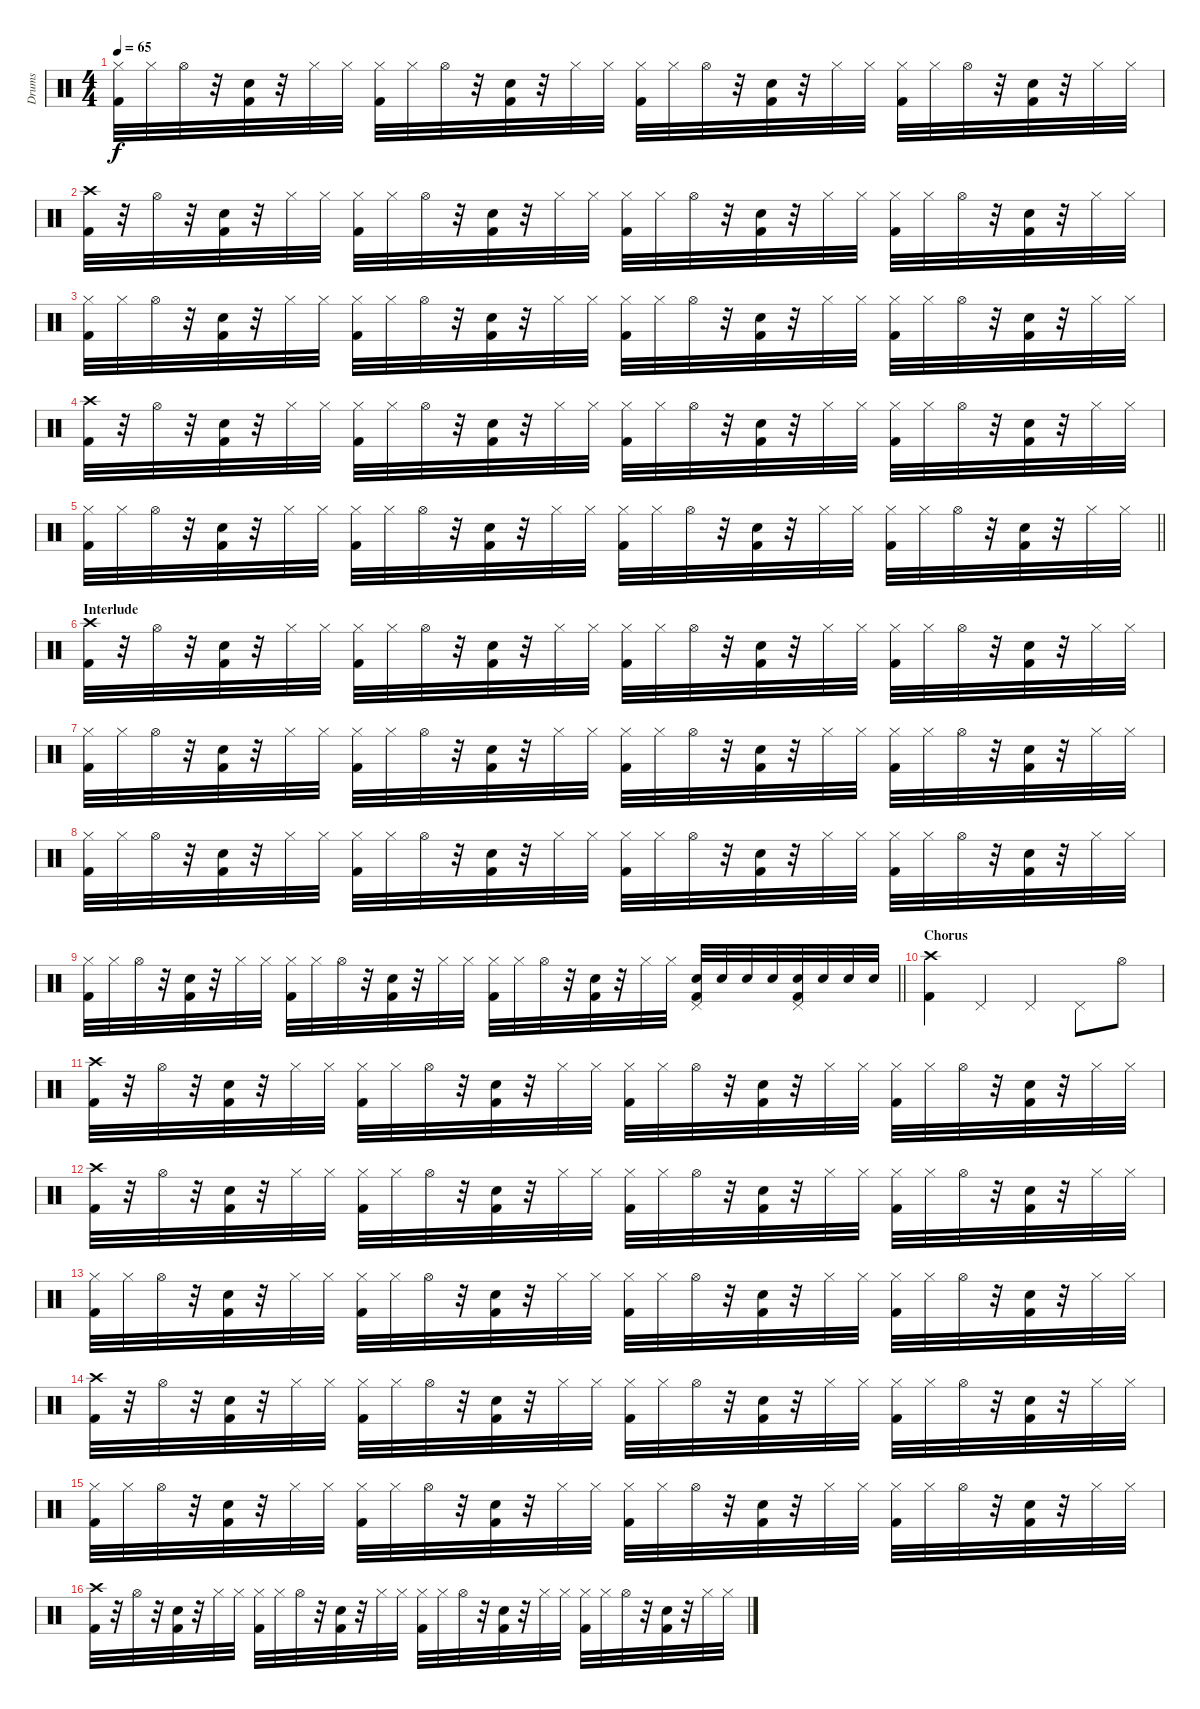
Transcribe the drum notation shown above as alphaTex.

\track ("Drums" "Drums") {instrument percussion}
\staff {score}
\articulation defaults
\ts (4 4)
\tempo 65
\clef neutral
\ks c
("Hi-Hat (closed)" "Kick (hit) 2").32{dy f} "Hi-Hat (closed)".32 "Hi-Hat (open)".32 r.32 ("Snare (hit) 2" "Kick (hit) 2").32 r.32 "Hi-Hat (closed)".32 "Hi-Hat (closed)".32 ("Hi-Hat (closed)" "Kick (hit) 2").32 "Hi-Hat (closed)".32 "Hi-Hat (open)".32 r.32 ("Snare (hit) 2" "Kick (hit) 2").32 r.32 "Hi-Hat (closed)".32 "Hi-Hat (closed)".32 ("Hi-Hat (closed)" "Kick (hit) 2").32 "Hi-Hat (closed)".32 "Hi-Hat (open)".32 r.32 ("Snare (hit) 2" "Kick (hit) 2").32 r.32 "Hi-Hat (closed)".32 "Hi-Hat (closed)".32 ("Hi-Hat (closed)" "Kick (hit) 2").32 "Hi-Hat (closed)".32 "Hi-Hat (open)".32 r.32 ("Snare (hit) 2" "Kick (hit) 2").32 r.32 "Hi-Hat (closed)".32 "Hi-Hat (closed)".32 |
("Crash high (hit)" "Kick (hit) 2").32 r.32 "Hi-Hat (open)".32 r.32 ("Snare (hit) 2" "Kick (hit) 2").32 r.32 "Hi-Hat (closed)".32 "Hi-Hat (closed)".32 ("Hi-Hat (closed)" "Kick (hit) 2").32 "Hi-Hat (closed)".32 "Hi-Hat (open)".32 r.32 ("Snare (hit) 2" "Kick (hit) 2").32 r.32 "Hi-Hat (closed)".32 "Hi-Hat (closed)".32 ("Hi-Hat (closed)" "Kick (hit) 2").32 "Hi-Hat (closed)".32 "Hi-Hat (open)".32 r.32 ("Snare (hit) 2" "Kick (hit) 2").32 r.32 "Hi-Hat (closed)".32 "Hi-Hat (closed)".32 ("Hi-Hat (closed)" "Kick (hit) 2").32 "Hi-Hat (closed)".32 "Hi-Hat (open)".32 r.32 ("Snare (hit) 2" "Kick (hit) 2").32 r.32 "Hi-Hat (closed)".32 "Hi-Hat (closed)".32 |
("Hi-Hat (closed)" "Kick (hit) 2").32 "Hi-Hat (closed)".32 "Hi-Hat (open)".32 r.32 ("Snare (hit) 2" "Kick (hit) 2").32 r.32 "Hi-Hat (closed)".32 "Hi-Hat (closed)".32 ("Hi-Hat (closed)" "Kick (hit) 2").32 "Hi-Hat (closed)".32 "Hi-Hat (open)".32 r.32 ("Snare (hit) 2" "Kick (hit) 2").32 r.32 "Hi-Hat (closed)".32 "Hi-Hat (closed)".32 ("Hi-Hat (closed)" "Kick (hit) 2").32 "Hi-Hat (closed)".32 "Hi-Hat (open)".32 r.32 ("Snare (hit) 2" "Kick (hit) 2").32 r.32 "Hi-Hat (closed)".32 "Hi-Hat (closed)".32 ("Hi-Hat (closed)" "Kick (hit) 2").32 "Hi-Hat (closed)".32 "Hi-Hat (open)".32 r.32 ("Snare (hit) 2" "Kick (hit) 2").32 r.32 "Hi-Hat (closed)".32 "Hi-Hat (closed)".32 |
("Crash high (hit)" "Kick (hit) 2").32 r.32 "Hi-Hat (open)".32 r.32 ("Snare (hit) 2" "Kick (hit) 2").32 r.32 "Hi-Hat (closed)".32 "Hi-Hat (closed)".32 ("Hi-Hat (closed)" "Kick (hit) 2").32 "Hi-Hat (closed)".32 "Hi-Hat (open)".32 r.32 ("Snare (hit) 2" "Kick (hit) 2").32 r.32 "Hi-Hat (closed)".32 "Hi-Hat (closed)".32 ("Hi-Hat (closed)" "Kick (hit) 2").32 "Hi-Hat (closed)".32 "Hi-Hat (open)".32 r.32 ("Snare (hit) 2" "Kick (hit) 2").32 r.32 "Hi-Hat (closed)".32 "Hi-Hat (closed)".32 ("Hi-Hat (closed)" "Kick (hit) 2").32 "Hi-Hat (closed)".32 "Hi-Hat (open)".32 r.32 ("Snare (hit) 2" "Kick (hit) 2").32 r.32 "Hi-Hat (closed)".32 "Hi-Hat (closed)".32 |
\barLineRight lightlight
("Hi-Hat (closed)" "Kick (hit) 2").32 "Hi-Hat (closed)".32 "Hi-Hat (open)".32 r.32 ("Snare (hit) 2" "Kick (hit) 2").32 r.32 "Hi-Hat (closed)".32 "Hi-Hat (closed)".32 ("Hi-Hat (closed)" "Kick (hit) 2").32 "Hi-Hat (closed)".32 "Hi-Hat (open)".32 r.32 ("Snare (hit) 2" "Kick (hit) 2").32 r.32 "Hi-Hat (closed)".32 "Hi-Hat (closed)".32 ("Hi-Hat (closed)" "Kick (hit) 2").32 "Hi-Hat (closed)".32 "Hi-Hat (open)".32 r.32 ("Snare (hit) 2" "Kick (hit) 2").32 r.32 "Hi-Hat (closed)".32 "Hi-Hat (closed)".32 ("Hi-Hat (closed)" "Kick (hit) 2").32 "Hi-Hat (closed)".32 "Hi-Hat (open)".32 r.32 ("Snare (hit) 2" "Kick (hit) 2").32 r.32 "Hi-Hat (closed)".32 "Hi-Hat (closed)".32 |
\section ("" "Interlude")
("Crash high (hit)" "Kick (hit) 2").32 r.32 "Hi-Hat (open)".32 r.32 ("Snare (hit) 2" "Kick (hit) 2").32 r.32 "Hi-Hat (closed)".32 "Hi-Hat (closed)".32 ("Hi-Hat (closed)" "Kick (hit) 2").32 "Hi-Hat (closed)".32 "Hi-Hat (open)".32 r.32 ("Snare (hit) 2" "Kick (hit) 2").32 r.32 "Hi-Hat (closed)".32 "Hi-Hat (closed)".32 ("Hi-Hat (closed)" "Kick (hit) 2").32 "Hi-Hat (closed)".32 "Hi-Hat (open)".32 r.32 ("Snare (hit) 2" "Kick (hit) 2").32 r.32 "Hi-Hat (closed)".32 "Hi-Hat (closed)".32 ("Hi-Hat (closed)" "Kick (hit) 2").32 "Hi-Hat (closed)".32 "Hi-Hat (open)".32 r.32 ("Snare (hit) 2" "Kick (hit) 2").32 r.32 "Hi-Hat (closed)".32 "Hi-Hat (closed)".32 |
("Hi-Hat (closed)" "Kick (hit) 2").32 "Hi-Hat (closed)".32 "Hi-Hat (open)".32 r.32 ("Snare (hit) 2" "Kick (hit) 2").32 r.32 "Hi-Hat (closed)".32 "Hi-Hat (closed)".32 ("Hi-Hat (closed)" "Kick (hit) 2").32 "Hi-Hat (closed)".32 "Hi-Hat (open)".32 r.32 ("Snare (hit) 2" "Kick (hit) 2").32 r.32 "Hi-Hat (closed)".32 "Hi-Hat (closed)".32 ("Hi-Hat (closed)" "Kick (hit) 2").32 "Hi-Hat (closed)".32 "Hi-Hat (open)".32 r.32 ("Snare (hit) 2" "Kick (hit) 2").32 r.32 "Hi-Hat (closed)".32 "Hi-Hat (closed)".32 ("Hi-Hat (closed)" "Kick (hit) 2").32 "Hi-Hat (closed)".32 "Hi-Hat (open)".32 r.32 ("Snare (hit) 2" "Kick (hit) 2").32 r.32 "Hi-Hat (closed)".32 "Hi-Hat (closed)".32 |
("Hi-Hat (closed)" "Kick (hit) 2").32 "Hi-Hat (closed)".32 "Hi-Hat (open)".32 r.32 ("Snare (hit) 2" "Kick (hit) 2").32 r.32 "Hi-Hat (closed)".32 "Hi-Hat (closed)".32 ("Hi-Hat (closed)" "Kick (hit) 2").32 "Hi-Hat (closed)".32 "Hi-Hat (open)".32 r.32 ("Snare (hit) 2" "Kick (hit) 2").32 r.32 "Hi-Hat (closed)".32 "Hi-Hat (closed)".32 ("Hi-Hat (closed)" "Kick (hit) 2").32 "Hi-Hat (closed)".32 "Hi-Hat (open)".32 r.32 ("Snare (hit) 2" "Kick (hit) 2").32 r.32 "Hi-Hat (closed)".32 "Hi-Hat (closed)".32 ("Hi-Hat (closed)" "Kick (hit) 2").32 "Hi-Hat (closed)".32 "Hi-Hat (open)".32 r.32 ("Snare (hit) 2" "Kick (hit) 2").32 r.32 "Hi-Hat (closed)".32 "Hi-Hat (closed)".32 |
\barLineRight lightlight
("Hi-Hat (closed)" "Kick (hit) 2").32 "Hi-Hat (closed)".32 "Hi-Hat (open)".32 r.32 ("Snare (hit) 2" "Kick (hit) 2").32 r.32 "Hi-Hat (closed)".32 "Hi-Hat (closed)".32 ("Hi-Hat (closed)" "Kick (hit) 2").32 "Hi-Hat (closed)".32 "Hi-Hat (open)".32 r.32 ("Snare (hit) 2" "Kick (hit) 2").32 r.32 "Hi-Hat (closed)".32 "Hi-Hat (closed)".32 ("Hi-Hat (closed)" "Kick (hit) 2").32 "Hi-Hat (closed)".32 "Hi-Hat (open)".32 r.32 ("Snare (hit) 2" "Kick (hit) 2").32 r.32 "Hi-Hat (closed)".32 "Hi-Hat (closed)".32 ("Pedal Hi-Hat (hit)" "Snare (hit) 2" "Kick (hit) 2").32 "Snare (hit) 2".32 "Snare (hit) 2".32 "Snare (hit) 2".32 ("Pedal Hi-Hat (hit)" "Snare (hit) 2" "Kick (hit) 2").32 "Snare (hit) 2".32 "Snare (hit) 2".32 "Snare (hit) 2".32 |
\section ("" "Chorus")
("Crash high (hit)" "Kick (hit) 2").4 "Pedal Hi-Hat (hit)".4 "Pedal Hi-Hat (hit)".4 "Pedal Hi-Hat (hit)".8 "Hi-Hat (open)".8 |
("Crash high (hit)" "Kick (hit) 2").32 r.32 "Hi-Hat (open)".32 r.32 ("Snare (hit) 2" "Kick (hit) 2").32 r.32 "Hi-Hat (closed)".32 "Hi-Hat (closed)".32 ("Hi-Hat (closed)" "Kick (hit) 2").32 "Hi-Hat (closed)".32 "Hi-Hat (open)".32 r.32 ("Snare (hit) 2" "Kick (hit) 2").32 r.32 "Hi-Hat (closed)".32 "Hi-Hat (closed)".32 ("Hi-Hat (closed)" "Kick (hit) 2").32 "Hi-Hat (closed)".32 "Hi-Hat (open)".32 r.32 ("Snare (hit) 2" "Kick (hit) 2").32 r.32 "Hi-Hat (closed)".32 "Hi-Hat (closed)".32 ("Hi-Hat (closed)" "Kick (hit) 2").32 "Hi-Hat (closed)".32 "Hi-Hat (open)".32 r.32 ("Snare (hit) 2" "Kick (hit) 2").32 r.32 "Hi-Hat (closed)".32 "Hi-Hat (closed)".32 |
("Crash high (hit)" "Kick (hit) 2").32 r.32 "Hi-Hat (open)".32 r.32 ("Snare (hit) 2" "Kick (hit) 2").32 r.32 "Hi-Hat (closed)".32 "Hi-Hat (closed)".32 ("Hi-Hat (closed)" "Kick (hit) 2").32 "Hi-Hat (closed)".32 "Hi-Hat (open)".32 r.32 ("Snare (hit) 2" "Kick (hit) 2").32 r.32 "Hi-Hat (closed)".32 "Hi-Hat (closed)".32 ("Hi-Hat (closed)" "Kick (hit) 2").32 "Hi-Hat (closed)".32 "Hi-Hat (open)".32 r.32 ("Snare (hit) 2" "Kick (hit) 2").32 r.32 "Hi-Hat (closed)".32 "Hi-Hat (closed)".32 ("Hi-Hat (closed)" "Kick (hit) 2").32 "Hi-Hat (closed)".32 "Hi-Hat (open)".32 r.32 ("Snare (hit) 2" "Kick (hit) 2").32 r.32 "Hi-Hat (closed)".32 "Hi-Hat (closed)".32 |
("Hi-Hat (closed)" "Kick (hit) 2").32 "Hi-Hat (closed)".32 "Hi-Hat (open)".32 r.32 ("Snare (hit) 2" "Kick (hit) 2").32 r.32 "Hi-Hat (closed)".32 "Hi-Hat (closed)".32 ("Hi-Hat (closed)" "Kick (hit) 2").32 "Hi-Hat (closed)".32 "Hi-Hat (open)".32 r.32 ("Snare (hit) 2" "Kick (hit) 2").32 r.32 "Hi-Hat (closed)".32 "Hi-Hat (closed)".32 ("Hi-Hat (closed)" "Kick (hit) 2").32 "Hi-Hat (closed)".32 "Hi-Hat (open)".32 r.32 ("Snare (hit) 2" "Kick (hit) 2").32 r.32 "Hi-Hat (closed)".32 "Hi-Hat (closed)".32 ("Hi-Hat (closed)" "Kick (hit) 2").32 "Hi-Hat (closed)".32 "Hi-Hat (open)".32 r.32 ("Snare (hit) 2" "Kick (hit) 2").32 r.32 "Hi-Hat (closed)".32 "Hi-Hat (closed)".32 |
("Crash high (hit)" "Kick (hit) 2").32 r.32 "Hi-Hat (open)".32 r.32 ("Snare (hit) 2" "Kick (hit) 2").32 r.32 "Hi-Hat (closed)".32 "Hi-Hat (closed)".32 ("Hi-Hat (closed)" "Kick (hit) 2").32 "Hi-Hat (closed)".32 "Hi-Hat (open)".32 r.32 ("Snare (hit) 2" "Kick (hit) 2").32 r.32 "Hi-Hat (closed)".32 "Hi-Hat (closed)".32 ("Hi-Hat (closed)" "Kick (hit) 2").32 "Hi-Hat (closed)".32 "Hi-Hat (open)".32 r.32 ("Snare (hit) 2" "Kick (hit) 2").32 r.32 "Hi-Hat (closed)".32 "Hi-Hat (closed)".32 ("Hi-Hat (closed)" "Kick (hit) 2").32 "Hi-Hat (closed)".32 "Hi-Hat (open)".32 r.32 ("Snare (hit) 2" "Kick (hit) 2").32 r.32 "Hi-Hat (closed)".32 "Hi-Hat (closed)".32 |
("Hi-Hat (closed)" "Kick (hit) 2").32 "Hi-Hat (closed)".32 "Hi-Hat (open)".32 r.32 ("Snare (hit) 2" "Kick (hit) 2").32 r.32 "Hi-Hat (closed)".32 "Hi-Hat (closed)".32 ("Hi-Hat (closed)" "Kick (hit) 2").32 "Hi-Hat (closed)".32 "Hi-Hat (open)".32 r.32 ("Snare (hit) 2" "Kick (hit) 2").32 r.32 "Hi-Hat (closed)".32 "Hi-Hat (closed)".32 ("Hi-Hat (closed)" "Kick (hit) 2").32 "Hi-Hat (closed)".32 "Hi-Hat (open)".32 r.32 ("Snare (hit) 2" "Kick (hit) 2").32 r.32 "Hi-Hat (closed)".32 "Hi-Hat (closed)".32 ("Hi-Hat (closed)" "Kick (hit) 2").32 "Hi-Hat (closed)".32 "Hi-Hat (open)".32 r.32 ("Snare (hit) 2" "Kick (hit) 2").32 r.32 "Hi-Hat (closed)".32 "Hi-Hat (closed)".32 |
("Crash high (hit)" "Kick (hit) 2").32 r.32 "Hi-Hat (open)".32 r.32 ("Snare (hit) 2" "Kick (hit) 2").32 r.32 "Hi-Hat (closed)".32 "Hi-Hat (closed)".32 ("Hi-Hat (closed)" "Kick (hit) 2").32 "Hi-Hat (closed)".32 "Hi-Hat (open)".32 r.32 ("Snare (hit) 2" "Kick (hit) 2").32 r.32 "Hi-Hat (closed)".32 "Hi-Hat (closed)".32 ("Hi-Hat (closed)" "Kick (hit) 2").32 "Hi-Hat (closed)".32 "Hi-Hat (open)".32 r.32 ("Snare (hit) 2" "Kick (hit) 2").32 r.32 "Hi-Hat (closed)".32 "Hi-Hat (closed)".32 ("Hi-Hat (closed)" "Kick (hit) 2").32 "Hi-Hat (closed)".32 "Hi-Hat (open)".32 r.32 ("Snare (hit) 2" "Kick (hit) 2").32 r.32 "Hi-Hat (closed)".32 "Hi-Hat (closed)".32
